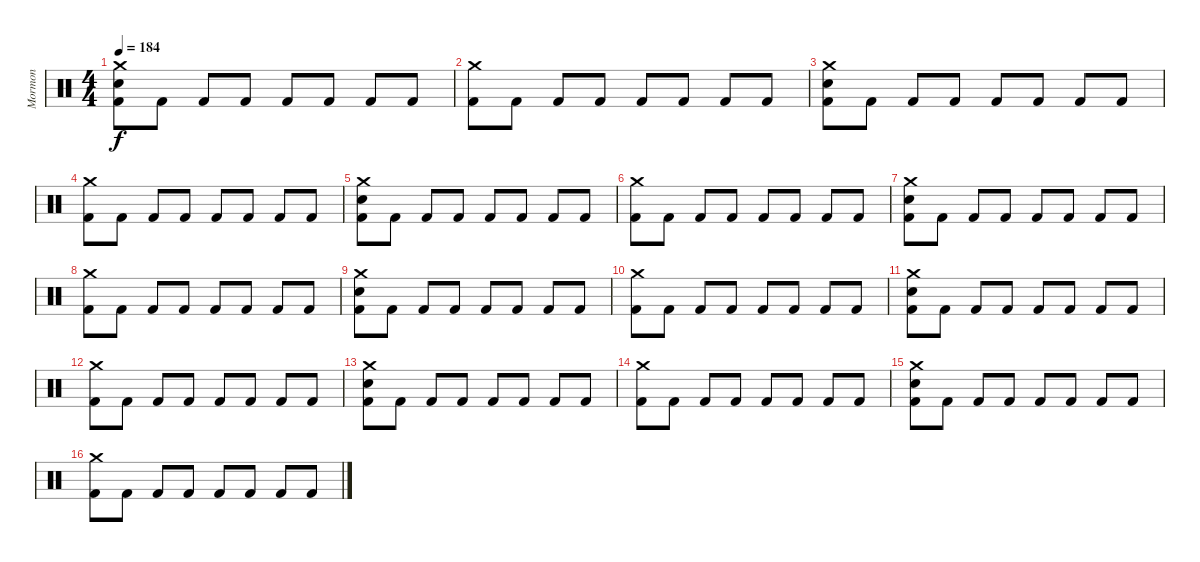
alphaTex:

\track ("Mormon" "Mormon") {solo instrument percussion}
\staff {score}
\articulation defaults
\ts (4 4)
\tempo 184
\clef neutral
\ks c
("Crash medium (hit)" "Snare (hit) 2" "Kick (hit) 2").8{dy f} "Kick (hit) 2".8 "Kick (hit) 2".8 "Kick (hit) 2".8 "Kick (hit) 2".8 "Kick (hit) 2".8 "Kick (hit) 2".8 "Kick (hit) 2".8 |
("Crash medium (hit)" "Kick (hit) 2").8 "Kick (hit) 2".8 "Kick (hit) 2".8 "Kick (hit) 2".8 "Kick (hit) 2".8 "Kick (hit) 2".8 "Kick (hit) 2".8 "Kick (hit) 2".8 |
("Crash medium (hit)" "Snare (hit) 2" "Kick (hit) 2").8 "Kick (hit) 2".8 "Kick (hit) 2".8 "Kick (hit) 2".8 "Kick (hit) 2".8 "Kick (hit) 2".8 "Kick (hit) 2".8 "Kick (hit) 2".8 |
("Crash medium (hit)" "Kick (hit) 2").8 "Kick (hit) 2".8 "Kick (hit) 2".8 "Kick (hit) 2".8 "Kick (hit) 2".8 "Kick (hit) 2".8 "Kick (hit) 2".8 "Kick (hit) 2".8 |
("Crash medium (hit)" "Snare (hit) 2" "Kick (hit) 2").8 "Kick (hit) 2".8 "Kick (hit) 2".8 "Kick (hit) 2".8 "Kick (hit) 2".8 "Kick (hit) 2".8 "Kick (hit) 2".8 "Kick (hit) 2".8 |
("Crash medium (hit)" "Kick (hit) 2").8 "Kick (hit) 2".8 "Kick (hit) 2".8 "Kick (hit) 2".8 "Kick (hit) 2".8 "Kick (hit) 2".8 "Kick (hit) 2".8 "Kick (hit) 2".8 |
("Crash medium (hit)" "Snare (hit) 2" "Kick (hit) 2").8 "Kick (hit) 2".8 "Kick (hit) 2".8 "Kick (hit) 2".8 "Kick (hit) 2".8 "Kick (hit) 2".8 "Kick (hit) 2".8 "Kick (hit) 2".8 |
("Crash medium (hit)" "Kick (hit) 2").8 "Kick (hit) 2".8 "Kick (hit) 2".8 "Kick (hit) 2".8 "Kick (hit) 2".8 "Kick (hit) 2".8 "Kick (hit) 2".8 "Kick (hit) 2".8 |
("Crash medium (hit)" "Snare (hit) 2" "Kick (hit) 2").8 "Kick (hit) 2".8 "Kick (hit) 2".8 "Kick (hit) 2".8 "Kick (hit) 2".8 "Kick (hit) 2".8 "Kick (hit) 2".8 "Kick (hit) 2".8 |
("Crash medium (hit)" "Kick (hit) 2").8 "Kick (hit) 2".8 "Kick (hit) 2".8 "Kick (hit) 2".8 "Kick (hit) 2".8 "Kick (hit) 2".8 "Kick (hit) 2".8 "Kick (hit) 2".8 |
("Crash medium (hit)" "Snare (hit) 2" "Kick (hit) 2").8 "Kick (hit) 2".8 "Kick (hit) 2".8 "Kick (hit) 2".8 "Kick (hit) 2".8 "Kick (hit) 2".8 "Kick (hit) 2".8 "Kick (hit) 2".8 |
("Crash medium (hit)" "Kick (hit) 2").8 "Kick (hit) 2".8 "Kick (hit) 2".8 "Kick (hit) 2".8 "Kick (hit) 2".8 "Kick (hit) 2".8 "Kick (hit) 2".8 "Kick (hit) 2".8 |
("Crash medium (hit)" "Snare (hit) 2" "Kick (hit) 2").8 "Kick (hit) 2".8 "Kick (hit) 2".8 "Kick (hit) 2".8 "Kick (hit) 2".8 "Kick (hit) 2".8 "Kick (hit) 2".8 "Kick (hit) 2".8 |
("Crash medium (hit)" "Kick (hit) 2").8 "Kick (hit) 2".8 "Kick (hit) 2".8 "Kick (hit) 2".8 "Kick (hit) 2".8 "Kick (hit) 2".8 "Kick (hit) 2".8 "Kick (hit) 2".8 |
("Crash medium (hit)" "Snare (hit) 2" "Kick (hit) 2").8 "Kick (hit) 2".8 "Kick (hit) 2".8 "Kick (hit) 2".8 "Kick (hit) 2".8 "Kick (hit) 2".8 "Kick (hit) 2".8 "Kick (hit) 2".8 |
("Crash medium (hit)" "Kick (hit) 2").8 "Kick (hit) 2".8 "Kick (hit) 2".8 "Kick (hit) 2".8 "Kick (hit) 2".8 "Kick (hit) 2".8 "Kick (hit) 2".8 "Kick (hit) 2".8
